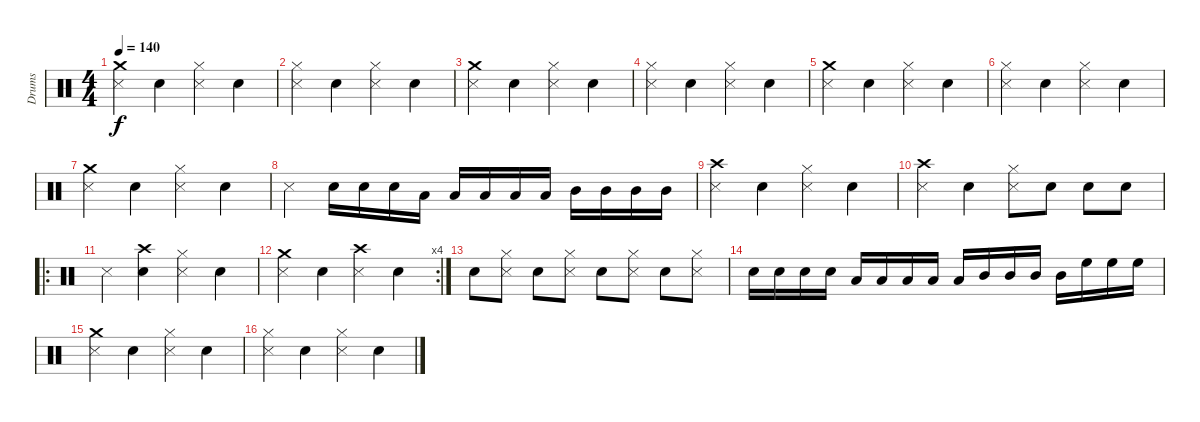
\track ("Drums" "Drums") {instrument percussion}
\staff {score}
\articulation defaults
\ts (4 4)
\tempo 140
\clef neutral
\ks c
("Crash medium (hit)" "Metronome (hit)").4{dy f} "Electric Snare (hit)".4 ("Hi-Hat (closed)" "Metronome (hit)").4 "Electric Snare (hit)".4 |
("Hi-Hat (closed)" "Metronome (hit)").4 "Electric Snare (hit)".4 ("Hi-Hat (closed)" "Metronome (hit)").4 "Electric Snare (hit)".4 |
("Crash medium (hit)" "Metronome (hit)").4 "Electric Snare (hit)".4 ("Hi-Hat (closed)" "Metronome (hit)").4 "Electric Snare (hit)".4 |
("Hi-Hat (closed)" "Metronome (hit)").4 "Electric Snare (hit)".4 ("Hi-Hat (closed)" "Metronome (hit)").4 "Electric Snare (hit)".4 |
("Crash medium (hit)" "Metronome (hit)").4 "Electric Snare (hit)".4 ("Hi-Hat (closed)" "Metronome (hit)").4 "Electric Snare (hit)".4 |
("Hi-Hat (closed)" "Metronome (hit)").4 "Electric Snare (hit)".4 ("Hi-Hat (closed)" "Metronome (hit)").4 "Electric Snare (hit)".4 |
("Crash medium (hit)" "Metronome (hit)").4 "Electric Snare (hit)".4 ("Hi-Hat (closed)" "Metronome (hit)").4 "Electric Snare (hit)".4 |
"Metronome (hit)".4 "Electric Snare (hit)".16 "Electric Snare (hit)".16 "Electric Snare (hit)".16 "Low Tom (hit)".16 "Low Tom (hit)".16 "Low Tom (hit)".16 "Low Tom (hit)".16 "Low Tom (hit)".16 "Mid Tom (hit)".16 "Mid Tom (hit)".16 "Mid Tom (hit)".16 "Mid Tom (hit)".16 |
("Crash high (hit)" "Metronome (hit)").4 "Electric Snare (hit)".4 ("Hi-Hat (closed)" "Metronome (hit)").4 "Electric Snare (hit)".4 |
("Crash high (hit)" "Metronome (hit)").4 "Electric Snare (hit)".4 ("Hi-Hat (closed)" "Metronome (hit)").8 "Electric Snare (hit)".8 "Electric Snare (hit)".8 "Electric Snare (hit)".8 |
\ro "Metronome (hit)".4
("Crash high (hit)" "Electric Snare (hit)").4 ("Hi-Hat (closed)" "Metronome (hit)").4 "Electric Snare (hit)".4 |
\rc 4
("Crash medium (hit)" "Metronome (hit)").4 "Electric Snare (hit)".4 ("Crash high (hit)" "Metronome (hit)").4 "Electric Snare (hit)".4 |
"Electric Snare (hit)".8 ("Hi-Hat (closed)" "Metronome (hit)").8 "Electric Snare (hit)".8 ("Hi-Hat (closed)" "Metronome (hit)").8 "Electric Snare (hit)".8 ("Hi-Hat (closed)" "Metronome (hit)").8 "Electric Snare (hit)".8 ("Hi-Hat (closed)" "Metronome (hit)").8 |
"Electric Snare (hit)".16 "Electric Snare (hit)".16 "Electric Snare (hit)".16 "Electric Snare (hit)".16 "Low Tom (hit)".16 "Low Tom (hit)".16 "Low Tom (hit)".16 "Low Tom (hit)".16 "Low Tom (hit)".16 "Mid Tom (hit)".16 "Mid Tom (hit)".16 "Mid Tom (hit)".16 "Mid Tom (hit)".16 "High Floor Tom (hit)".16 "High Floor Tom (hit)".16 "High Floor Tom (hit)".16 |
("Crash medium (hit)" "Metronome (hit)").4 "Electric Snare (hit)".4 ("Hi-Hat (closed)" "Metronome (hit)").4 "Electric Snare (hit)".4 |
("Hi-Hat (closed)" "Metronome (hit)").4 "Electric Snare (hit)".4 ("Hi-Hat (closed)" "Metronome (hit)").4 "Electric Snare (hit)".4
